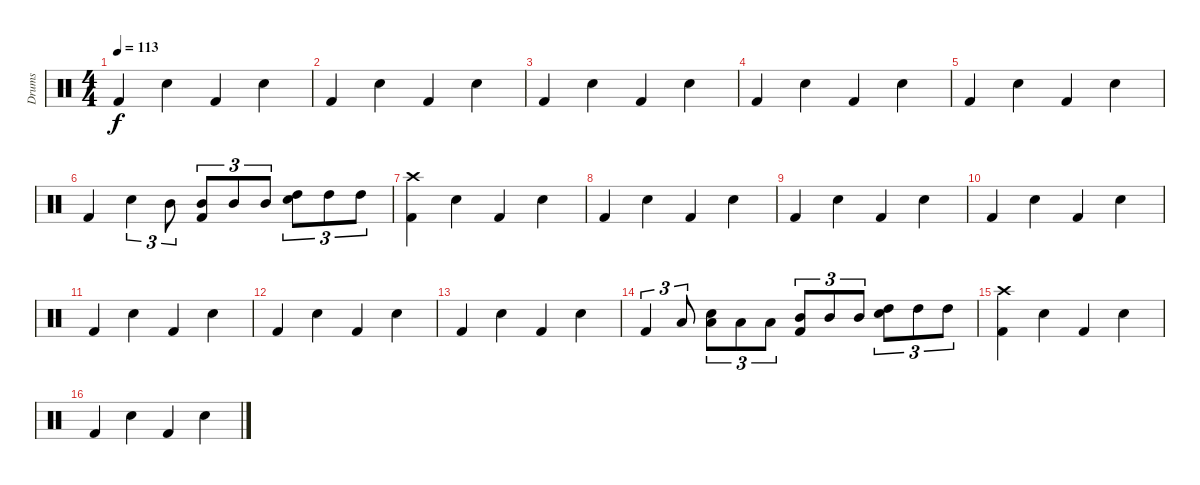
\track ("Drums" "Drums") {instrument percussion}
\staff {score}
\articulation defaults
\ts (4 4)
\tempo 113
\clef neutral
\ks c "Kick (hit) 2".4{dy f} "Electric Snare (hit)".4 "Kick (hit) 2".4 "Electric Snare (hit)".4
|
"Kick (hit) 2".4 "Electric Snare (hit)".4 "Kick (hit) 2".4 "Electric Snare (hit)".4 |
"Kick (hit) 2".4 "Electric Snare (hit)".4 "Kick (hit) 2".4 "Electric Snare (hit)".4 |
"Kick (hit) 2".4 "Electric Snare (hit)".4 "Kick (hit) 2".4 "Electric Snare (hit)".4 |
"Kick (hit) 2".4 "Electric Snare (hit)".4 "Kick (hit) 2".4 "Electric Snare (hit)".4 |
"Kick (hit) 2".4 "Electric Snare (hit)".4{tu (3 2)} "Mid Tom (hit)".8{tu (3 2)} ("Mid Tom (hit)" "Kick (hit) 2").8{tu (3 2)} "Mid Tom (hit)".8{tu (3 2)} "Mid Tom (hit)".8{tu (3 2)} ("High Tom (hit)" "Electric Snare (hit)").8{tu (3 2)} "High Tom (hit)".8{tu (3 2)} "High Tom (hit)".8{tu (3 2)} |
("Crash high (hit)" "Kick (hit) 2").4 "Electric Snare (hit)".4 "Kick (hit) 2".4 "Electric Snare (hit)".4 |
"Kick (hit) 2".4 "Electric Snare (hit)".4 "Kick (hit) 2".4 "Electric Snare (hit)".4 |
"Kick (hit) 2".4 "Electric Snare (hit)".4 "Kick (hit) 2".4 "Electric Snare (hit)".4 |
"Kick (hit) 2".4 "Electric Snare (hit)".4 "Kick (hit) 2".4 "Electric Snare (hit)".4 |
"Kick (hit) 2".4 "Electric Snare (hit)".4 "Kick (hit) 2".4 "Electric Snare (hit)".4 |
"Kick (hit) 2".4 "Electric Snare (hit)".4 "Kick (hit) 2".4 "Electric Snare (hit)".4 |
"Kick (hit) 2".4 "Electric Snare (hit)".4 "Kick (hit) 2".4 "Electric Snare (hit)".4 |
"Kick (hit) 2".4{tu (3 2)} "Low Tom (hit)".8{tu (3 2)} ("Low Tom (hit)" "Electric Snare (hit)").8{tu (3 2)} "Low Tom (hit)".8{tu (3 2)} "Low Tom (hit)".8{tu (3 2)} ("Mid Tom (hit)" "Kick (hit) 2").8{tu (3 2)} "Mid Tom (hit)".8{tu (3 2)} "Mid Tom (hit)".8{tu (3 2)} ("High Tom (hit)" "Electric Snare (hit)").8{tu (3 2)} "High Tom (hit)".8{tu (3 2)} "High Tom (hit)".8{tu (3 2)} |
("Crash high (hit)" "Kick (hit) 2").4 "Electric Snare (hit)".4 "Kick (hit) 2".4 "Electric Snare (hit)".4 |
"Kick (hit) 2".4 "Electric Snare (hit)".4 "Kick (hit) 2".4 "Electric Snare (hit)".4
